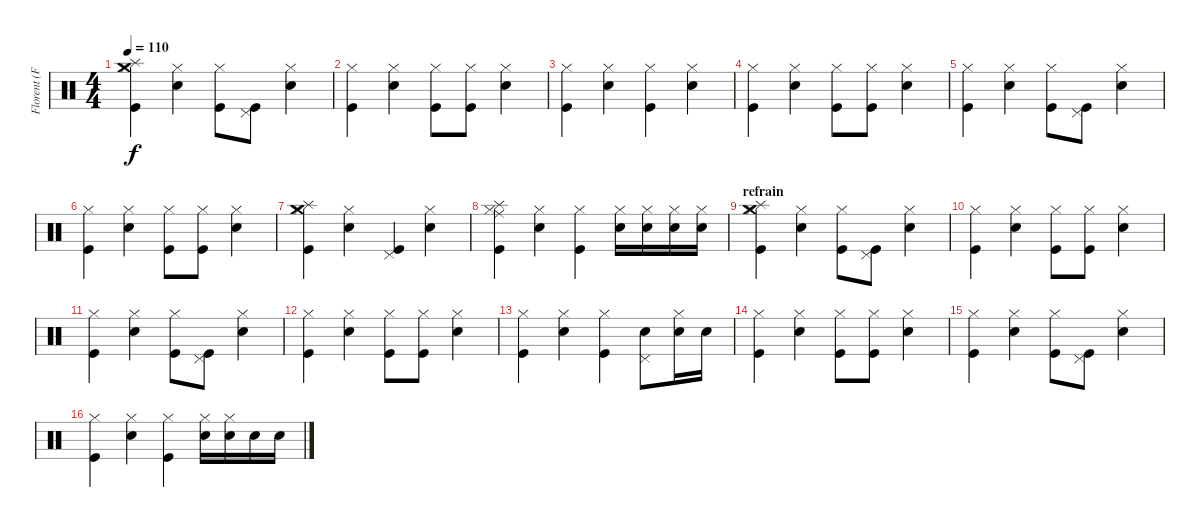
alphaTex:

\track ("Florent (Fûts)" "Florent (F") {instrument percussion}
\staff {score}
\articulation defaults
\ts (4 4)
\tempo 110
\clef neutral
\ks c
("Kick (hit)" "Crash medium (hit)" "Splash (hit)" "Hi-Hat (closed)").4{dy f} ("Snare (hit) 2" "Hi-Hat (closed)").4 ("Kick (hit)" "Hi-Hat (closed)").8 ("Kick (hit)" "Pedal Hi-Hat (hit)").8 ("Snare (hit) 2" "Hi-Hat (closed)").4 |
("Kick (hit)" "Hi-Hat (closed)").4 ("Snare (hit) 2" "Hi-Hat (closed)").4 ("Kick (hit)" "Hi-Hat (closed)").8 ("Kick (hit)" "Hi-Hat (closed)").8 ("Snare (hit) 2" "Hi-Hat (closed)").4 |
("Kick (hit)" "Hi-Hat (closed)").4 ("Snare (hit) 2" "Hi-Hat (closed)").4 ("Kick (hit)" "Hi-Hat (closed)").4 ("Snare (hit) 2" "Hi-Hat (closed)").4 |
("Kick (hit)" "Hi-Hat (closed)").4 ("Snare (hit) 2" "Hi-Hat (closed)").4 ("Kick (hit)" "Hi-Hat (closed)").8 ("Kick (hit)" "Hi-Hat (closed)").8 ("Snare (hit) 2" "Hi-Hat (closed)").4 |
("Kick (hit)" "Hi-Hat (closed)").4 ("Snare (hit) 2" "Hi-Hat (closed)").4 ("Kick (hit)" "Hi-Hat (closed)").8 ("Kick (hit)" "Pedal Hi-Hat (hit)").8 ("Snare (hit) 2" "Hi-Hat (closed)").4 |
("Kick (hit)" "Hi-Hat (closed)").4 ("Snare (hit) 2" "Hi-Hat (closed)").4 ("Kick (hit)" "Hi-Hat (closed)").8 ("Kick (hit)" "Hi-Hat (closed)").8 ("Snare (hit) 2" "Hi-Hat (closed)").4 |
("Kick (hit)" "Splash (hit)" "Crash medium (hit)" "Hi-Hat (closed)").4 ("Snare (hit) 2" "Hi-Hat (closed)").4 ("Kick (hit)" "Pedal Hi-Hat (hit)").4 ("Snare (hit) 2" "Hi-Hat (closed)").4 |
("Kick (hit)" "Splash (hit)" "Ride (middle)" "Hi-Hat (closed)").4 ("Snare (hit) 2" "Hi-Hat (closed)").4 ("Kick (hit)" "Hi-Hat (closed)").4 ("Snare (hit) 2" "Hi-Hat (closed)").16 ("Snare (hit) 2" "Hi-Hat (closed)").16 ("Snare (hit) 2" "Hi-Hat (closed)").16 ("Snare (hit) 2" "Hi-Hat (closed)").16 |
\section ("" "refrain")
("Kick (hit)" "Splash (hit)" "Crash medium (hit)" "Hi-Hat (closed)").4 ("Snare (hit) 2" "Hi-Hat (closed)").4 ("Kick (hit)" "Hi-Hat (closed)").8 ("Kick (hit)" "Pedal Hi-Hat (hit)").8 ("Snare (hit) 2" "Hi-Hat (closed)").4 |
("Kick (hit)" "Hi-Hat (closed)").4 ("Snare (hit) 2" "Hi-Hat (closed)").4 ("Kick (hit)" "Hi-Hat (closed)").8 ("Kick (hit)" "Hi-Hat (closed)").8 ("Snare (hit) 2" "Hi-Hat (closed)").4 |
("Kick (hit)" "Hi-Hat (closed)").4 ("Snare (hit) 2" "Hi-Hat (closed)").4 ("Kick (hit)" "Hi-Hat (closed)").8 ("Kick (hit)" "Pedal Hi-Hat (hit)").8 ("Snare (hit) 2" "Hi-Hat (closed)").4 |
("Kick (hit)" "Hi-Hat (closed)").4 ("Snare (hit) 2" "Hi-Hat (closed)").4 ("Kick (hit)" "Hi-Hat (closed)").8 ("Kick (hit)" "Hi-Hat (closed)").8 ("Snare (hit) 2" "Hi-Hat (closed)").4 |
("Kick (hit)" "Hi-Hat (closed)").4 ("Snare (hit) 2" "Hi-Hat (closed)").4 ("Kick (hit)" "Hi-Hat (closed)").4 ("Snare (hit) 2" "Pedal Hi-Hat (hit)").8 ("Snare (hit) 2" "Hi-Hat (closed)").16 "Snare (hit) 2".16 |
("Kick (hit)" "Hi-Hat (closed)").4 ("Snare (hit) 2" "Hi-Hat (closed)").4 ("Kick (hit)" "Hi-Hat (closed)").8 ("Kick (hit)" "Hi-Hat (closed)").8 ("Snare (hit) 2" "Hi-Hat (closed)").4 |
("Kick (hit)" "Hi-Hat (closed)").4 ("Snare (hit) 2" "Hi-Hat (closed)").4 ("Kick (hit)" "Hi-Hat (closed)").8 ("Kick (hit)" "Pedal Hi-Hat (hit)").8 ("Snare (hit) 2" "Hi-Hat (closed)").4 |
("Kick (hit)" "Hi-Hat (closed)").4 ("Snare (hit) 2" "Hi-Hat (closed)").4 ("Kick (hit)" "Hi-Hat (closed)").4 ("Snare (hit) 2" "Hi-Hat (closed)").16 ("Snare (hit) 2" "Hi-Hat (closed)").16 "Snare (hit) 2".16 "Snare (hit) 2".16
